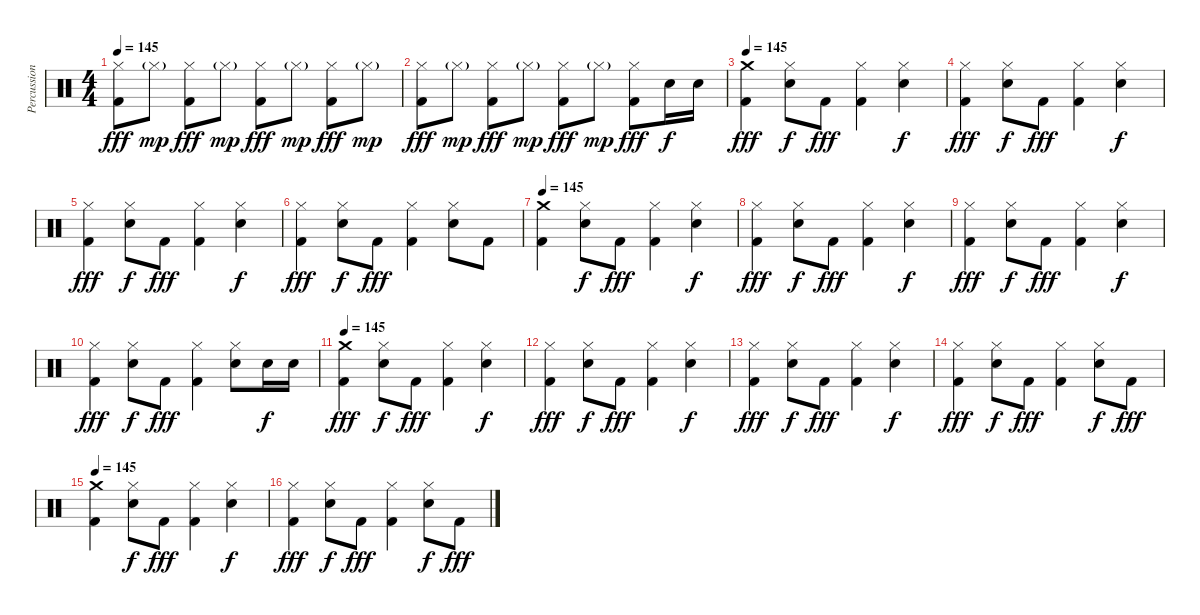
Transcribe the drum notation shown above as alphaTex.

\track ("Percussion" "Percussion") {instrument percussion}
\staff {score}
\articulation defaults
\ts (4 4)
\tempo 145
\clef neutral
\ks c
("Hi-Hat (closed)" "Kick (hit) 2").8{dy fff} "Hi-Hat (closed)"{g}.8{dy mp} ("Hi-Hat (closed)" "Kick (hit) 2").8{dy fff} "Hi-Hat (closed)"{g}.8{dy mp} ("Hi-Hat (closed)" "Kick (hit) 2").8{dy fff} "Hi-Hat (closed)"{g}.8{dy mp} ("Hi-Hat (closed)" "Kick (hit) 2").8{dy fff} "Hi-Hat (closed)"{g}.8{dy mp} |
("Hi-Hat (closed)" "Kick (hit) 2").8{dy fff} "Hi-Hat (closed)"{g}.8{dy mp} ("Hi-Hat (closed)" "Kick (hit) 2").8{dy fff} "Hi-Hat (closed)"{g}.8{dy mp} ("Hi-Hat (closed)" "Kick (hit) 2").8{dy fff} "Hi-Hat (closed)"{g}.8{dy mp} ("Hi-Hat (closed)" "Kick (hit) 2").8{dy fff} "Snare (hit) 2".16{dy f} "Snare (hit) 2".16 |
\tempo 145
("Crash medium (hit)" "Kick (hit) 2").4{dy fff} ("Hi-Hat (closed)" "Snare (hit) 2").8{dy f} "Kick (hit) 2".8{dy fff} ("Hi-Hat (closed)" "Kick (hit) 2").4 ("Hi-Hat (closed)" "Snare (hit) 2").4{dy f} |
("Hi-Hat (closed)" "Kick (hit) 2").4{dy fff} ("Hi-Hat (closed)" "Snare (hit) 2").8{dy f} "Kick (hit) 2".8{dy fff} ("Hi-Hat (closed)" "Kick (hit) 2").4 ("Hi-Hat (closed)" "Snare (hit) 2").4{dy f} |
("Hi-Hat (closed)" "Kick (hit) 2").4{dy fff} ("Hi-Hat (closed)" "Snare (hit) 2").8{dy f} "Kick (hit) 2".8{dy fff} ("Hi-Hat (closed)" "Kick (hit) 2").4 ("Hi-Hat (closed)" "Snare (hit) 2").4{dy f} |
("Hi-Hat (closed)" "Kick (hit) 2").4{dy fff} ("Hi-Hat (closed)" "Snare (hit) 2").8{dy f} "Kick (hit) 2".8{dy fff} ("Hi-Hat (closed)" "Kick (hit) 2").4 ("Hi-Hat (closed)" "Snare (hit) 2").8 "Kick (hit) 2".8 |
\tempo 145
("Crash medium (hit)" "Kick (hit) 2").4 ("Hi-Hat (closed)" "Snare (hit) 2").8{dy f} "Kick (hit) 2".8{dy fff} ("Hi-Hat (closed)" "Kick (hit) 2").4 ("Hi-Hat (closed)" "Snare (hit) 2").4{dy f} |
("Hi-Hat (closed)" "Kick (hit) 2").4{dy fff} ("Hi-Hat (closed)" "Snare (hit) 2").8{dy f} "Kick (hit) 2".8{dy fff} ("Hi-Hat (closed)" "Kick (hit) 2").4 ("Hi-Hat (closed)" "Snare (hit) 2").4{dy f} |
("Hi-Hat (closed)" "Kick (hit) 2").4{dy fff} ("Hi-Hat (closed)" "Snare (hit) 2").8{dy f} "Kick (hit) 2".8{dy fff} ("Hi-Hat (closed)" "Kick (hit) 2").4 ("Hi-Hat (closed)" "Snare (hit) 2").4{dy f} |
("Hi-Hat (closed)" "Kick (hit) 2").4{dy fff} ("Hi-Hat (closed)" "Snare (hit) 2").8{dy f} "Kick (hit) 2".8{dy fff} ("Hi-Hat (closed)" "Kick (hit) 2").4 ("Hi-Hat (closed)" "Snare (hit) 2").8 "Snare (hit) 2".16{dy f} "Snare (hit) 2".16 |
\tempo 145
("Crash medium (hit)" "Kick (hit) 2").4{dy fff} ("Hi-Hat (closed)" "Snare (hit) 2").8{dy f} "Kick (hit) 2".8{dy fff} ("Hi-Hat (closed)" "Kick (hit) 2").4 ("Hi-Hat (closed)" "Snare (hit) 2").4{dy f} |
("Hi-Hat (closed)" "Kick (hit) 2").4{dy fff} ("Hi-Hat (closed)" "Snare (hit) 2").8{dy f} "Kick (hit) 2".8{dy fff} ("Hi-Hat (closed)" "Kick (hit) 2").4 ("Hi-Hat (closed)" "Snare (hit) 2").4{dy f} |
("Hi-Hat (closed)" "Kick (hit) 2").4{dy fff} ("Hi-Hat (closed)" "Snare (hit) 2").8{dy f} "Kick (hit) 2".8{dy fff} ("Hi-Hat (closed)" "Kick (hit) 2").4 ("Hi-Hat (closed)" "Snare (hit) 2").4{dy f} |
("Hi-Hat (closed)" "Kick (hit) 2").4{dy fff} ("Hi-Hat (closed)" "Snare (hit) 2").8{dy f} "Kick (hit) 2".8{dy fff} ("Hi-Hat (closed)" "Kick (hit) 2").4 ("Hi-Hat (closed)" "Snare (hit) 2").8{dy f} "Kick (hit) 2".8{dy fff} |
\tempo 145
("Crash medium (hit)" "Kick (hit) 2").4 ("Hi-Hat (closed)" "Snare (hit) 2").8{dy f} "Kick (hit) 2".8{dy fff} ("Hi-Hat (closed)" "Kick (hit) 2").4 ("Hi-Hat (closed)" "Snare (hit) 2").4{dy f} |
("Hi-Hat (closed)" "Kick (hit) 2").4{dy fff} ("Hi-Hat (closed)" "Snare (hit) 2").8{dy f} "Kick (hit) 2".8{dy fff} ("Hi-Hat (closed)" "Kick (hit) 2").4 ("Hi-Hat (closed)" "Snare (hit) 2").8{dy f} "Kick (hit) 2".8{dy fff}
